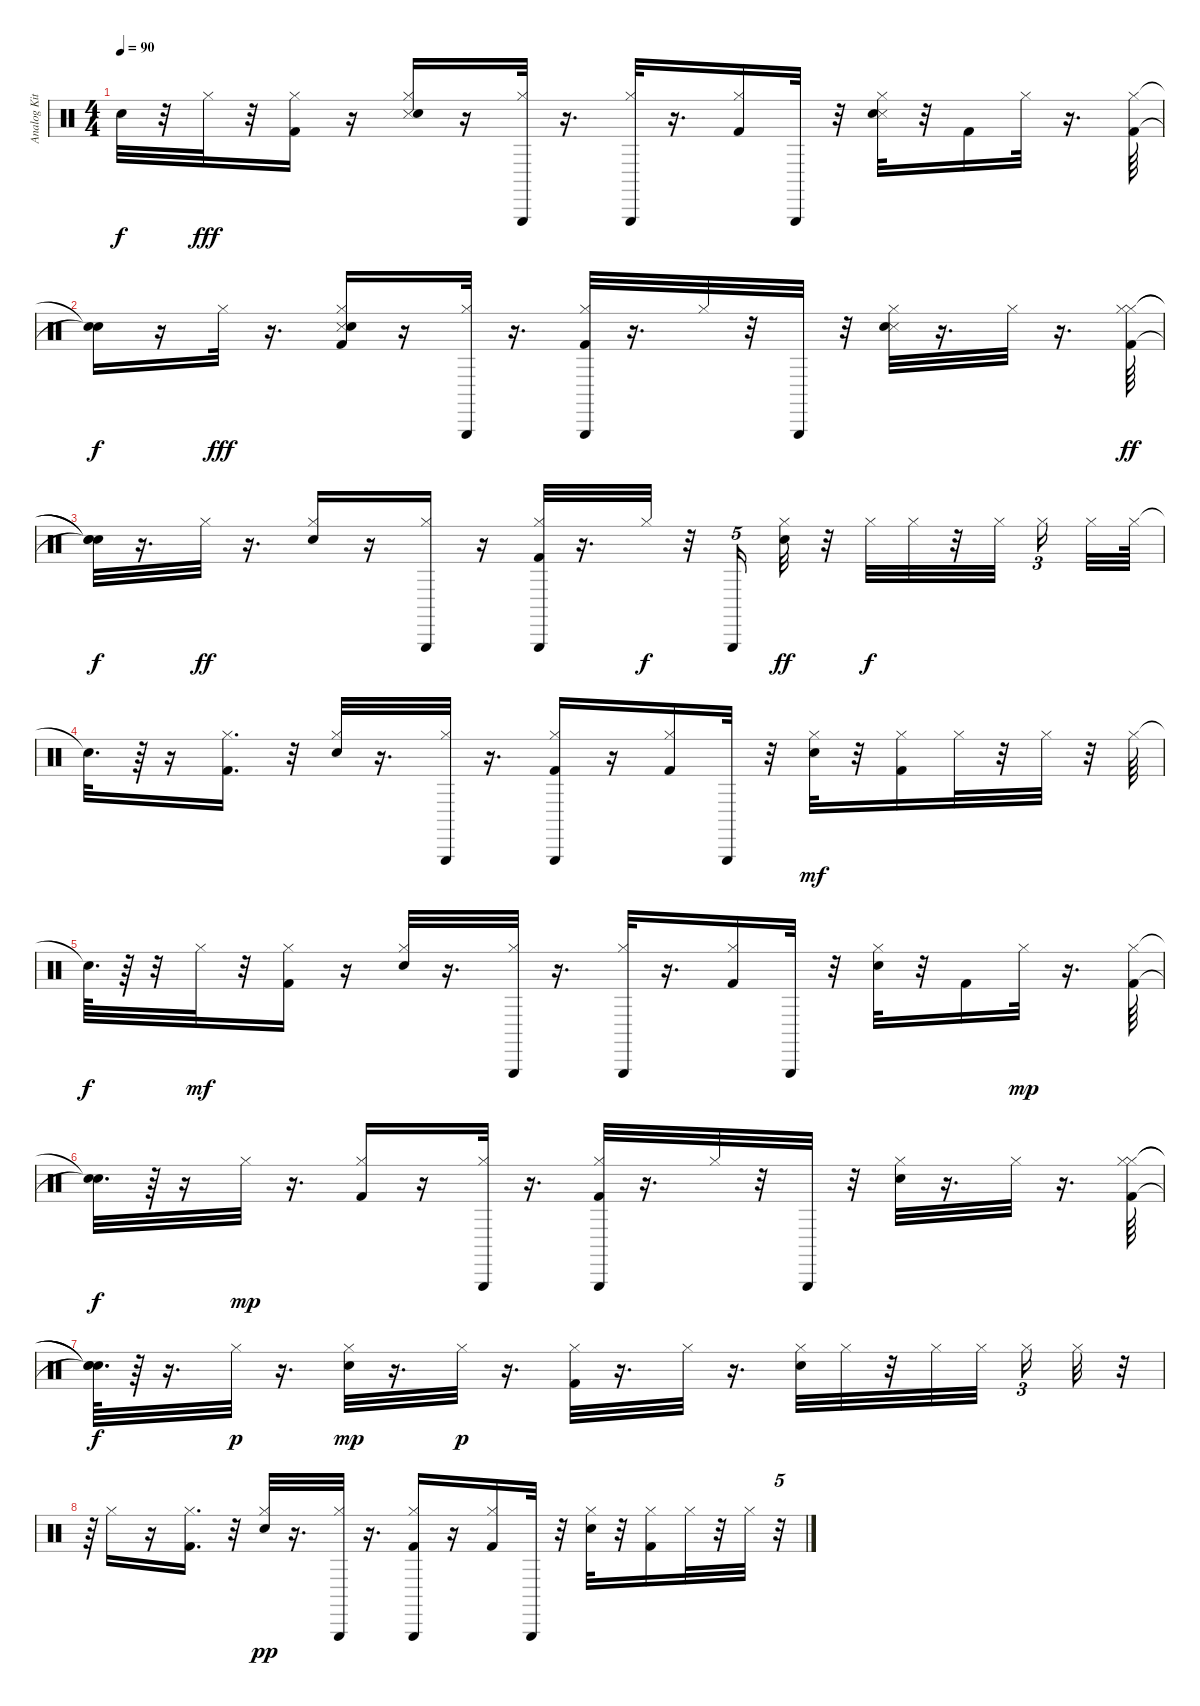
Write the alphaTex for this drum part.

\track ("Analog Kit" "Analog Kit") {instrument percussion}
\staff {score}
\articulation defaults
\ts (4 4)
\tempo 90
\clef neutral
\ks c "Snare (hit)"{t}.32{dy f}
r.32 "Hi-Hat (closed)".32{dy fff} r.32 ("Hi-Hat (closed)" "Kick (hit) 2").16 r.16 ("Snare (side stick) 3" "Electric Snare (hit)" "Hi-Hat (closed)").16 r.16 ("Hi-Hat (closed)" "Triangle (hit)").32 r.16{d} ("Hi-Hat (closed)" "Triangle (hit)").32 r.16{d} ("Kick (hit) 2" "Hi-Hat (closed)").16 "Triangle (hit)".32 r.32 ("Snare (side stick) 3" "Electric Snare (hit)" "Hi-Hat (closed)").32 r.32 "Kick (hit) 2".16 "Hi-Hat (closed)".32 r.16{d} ("Hi-Hat (closed)" "Kick (hit) 2").64 |
("Snare (hit)"{t} "Snare (hit)"{t}).16{dy f} r.16 "Hi-Hat (closed)".32{dy fff} r.16{d} ("Snare (side stick) 3" "Kick (hit) 2" "Electric Snare (hit)" "Hi-Hat (closed)").16 r.16 ("Triangle (hit)" "Hi-Hat (closed)").32 r.16{d} ("Kick (hit) 2" "Hi-Hat (closed)" "Triangle (hit)").32 r.16{d} "Hi-Hat (closed)".32 r.32 "Triangle (hit)".32 r.32 ("Snare (side stick) 3" "Electric Snare (hit)" "Hi-Hat (closed)").32 r.16{d} "Hi-Hat (closed)".32 r.16{d} ("Hi-Hat (closed)" "Hi-Hat (closed)" "Kick (hit) 2").64{dy ff} |
("Snare (hit)"{t} "Snare (hit)"{t} "Snare (hit)"{t}).32{dy f} r.16{d} "Hi-Hat (closed)".32{dy ff} r.16{d} ("Hi-Hat (closed)" "Electric Snare (hit)").16 r.16 ("Hi-Hat (closed)" "Triangle (hit)").16 r.16 ("Kick (hit) 2" "Hi-Hat (closed)" "Triangle (hit)").32 r.16{d} "Hi-Hat (closed)".32{dy f} r.32 "Triangle (hit)".16{tu (5 4)} ("Hi-Hat (closed)" "Electric Snare (hit)").32{dy ff} r.32 "Hi-Hat (closed)".32{dy f} "Hi-Hat (closed)".32 r.32 "Hi-Hat (closed)".32{beam splitsecondary} "Hi-Hat (closed)".16{tu (3 2) beam splitsecondary} "Hi-Hat (closed)".32 "Hi-Hat (closed)".64 |
"Snare (hit)"{t}.32{d} r.64 r.16 ("Kick (hit) 2" "Hi-Hat (closed)").16{d} r.32 ("Electric Snare (hit)" "Hi-Hat (closed)").32 r.16{d} ("Hi-Hat (closed)" "Triangle (hit)").32 r.16{d} ("Hi-Hat (closed)" "Kick (hit) 2" "Triangle (hit)").16 r.16 ("Kick (hit) 2" "Hi-Hat (closed)").16 "Triangle (hit)".32 r.32 ("Electric Snare (hit)" "Hi-Hat (closed)").32{dy mf} r.32 ("Kick (hit) 2" "Hi-Hat (closed)").16 "Hi-Hat (closed)".32 r.32 "Hi-Hat (closed)".32 r.32 "Hi-Hat (closed)".64 |
"Snare (hit)"{t}.64{d dy f} r.64 r.32 "Hi-Hat (closed)".32{dy mf} r.32 ("Hi-Hat (closed)" "Kick (hit) 2").16 r.16 ("Electric Snare (hit)" "Hi-Hat (closed)").32 r.16{d} ("Hi-Hat (closed)" "Triangle (hit)").32 r.16{d} ("Hi-Hat (closed)" "Triangle (hit)").32 r.16{d} ("Kick (hit) 2" "Hi-Hat (closed)").16 "Triangle (hit)".32 r.32 ("Electric Snare (hit)" "Hi-Hat (closed)").32 r.32 "Kick (hit) 2".16 "Hi-Hat (closed)".32{dy mp} r.16{d} ("Hi-Hat (closed)" "Kick (hit) 2").64 |
("Snare (hit)"{t} "Snare (hit)"{t}).32{d dy f} r.64 r.16 "Hi-Hat (closed)".32{dy mp} r.16{d} ("Kick (hit) 2" "Hi-Hat (closed)").16 r.16 ("Triangle (hit)" "Hi-Hat (closed)").32 r.16{d} ("Kick (hit) 2" "Hi-Hat (closed)" "Triangle (hit)").32 r.16{d} "Hi-Hat (closed)".32 r.32 "Triangle (hit)".32 r.32 ("Electric Snare (hit)" "Hi-Hat (closed)").32 r.16{d} "Hi-Hat (closed)".32 r.16{d} ("Hi-Hat (closed)" "Hi-Hat (closed)" "Kick (hit) 2").64 |
("Snare (hit)"{t} "Snare (hit)"{t} "Snare (hit)"{t}).64{d dy f} r.64 r.16{d} "Hi-Hat (closed)".32{dy p} r.16{d} ("Hi-Hat (closed)" "Electric Snare (hit)").32{dy mp} r.16{d} "Hi-Hat (closed)".32{dy p} r.16{d} ("Kick (hit) 2" "Hi-Hat (closed)").32 r.16{d} "Hi-Hat (closed)".32 r.16{d} ("Hi-Hat (closed)" "Electric Snare (hit)").32 "Hi-Hat (closed)".32 r.32 "Hi-Hat (closed)".32 "Hi-Hat (closed)".32{beam splitsecondary} "Hi-Hat (closed)".16{tu (3 2)} "Hi-Hat (closed)".32 r.32{tu (5 4)} |
r.64 "Hi-Hat (closed)".16 r.16 ("Kick (hit) 2" "Hi-Hat (closed)").16{d} r.32 ("Electric Snare (hit)" "Hi-Hat (closed)").32{dy pp} r.16{d} ("Hi-Hat (closed)" "Triangle (hit)").32 r.16{d} ("Hi-Hat (closed)" "Kick (hit) 2" "Triangle (hit)").16 r.16 ("Kick (hit) 2" "Hi-Hat (closed)").16 "Triangle (hit)".32 r.32 ("Electric Snare (hit)" "Hi-Hat (closed)").32 r.32 ("Kick (hit) 2" "Hi-Hat (closed)").16 "Hi-Hat (closed)".32 r.32 "Hi-Hat (closed)".32 r.32{tu (5 4)}
